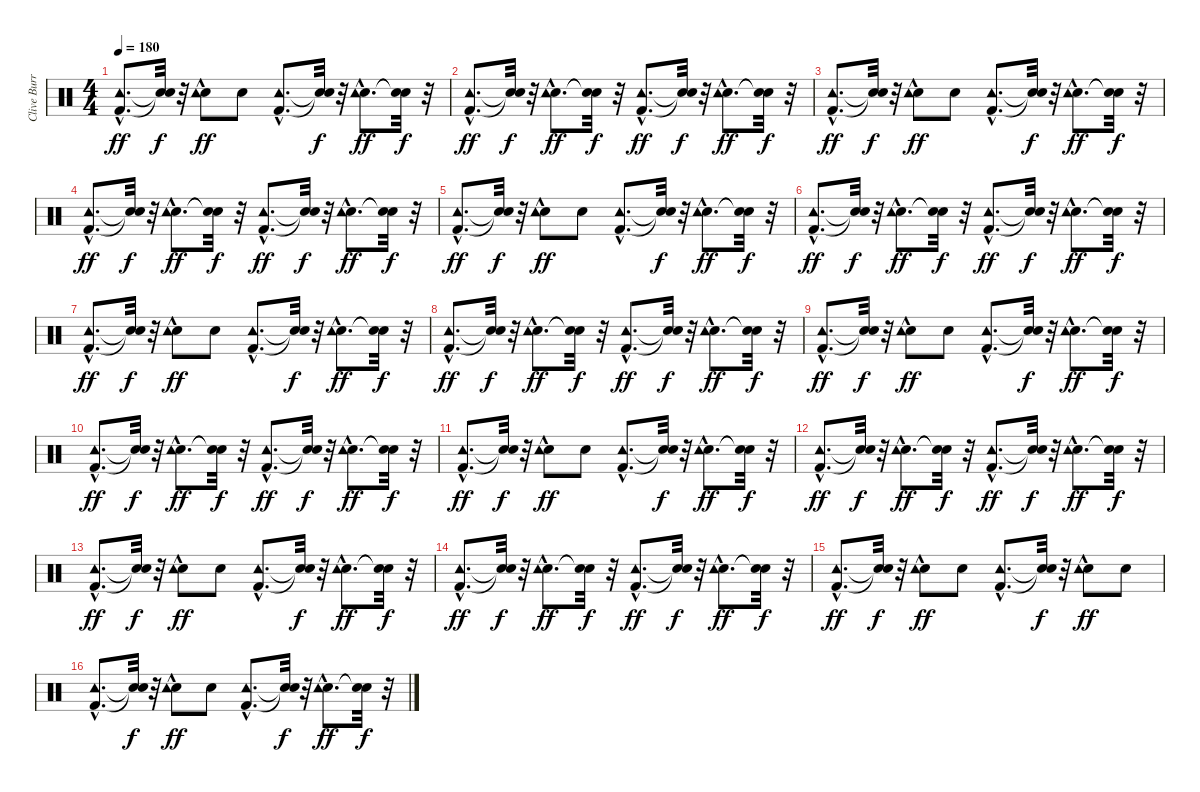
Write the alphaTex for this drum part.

\track ("Clive Burr" "Clive Burr") {instrument percussion}
\staff {score}
\articulation defaults
\ts (4 4)
\tempo 180
\clef neutral
\ks c
("Kick (hit) 2"{hac} "Tambourine (hit)"{hac}).8{d dy ff} ("Snare (hit)"{t} "Snare (hit)"{t}).32{dy f} r.32 ("Snare (hit) 2" "Tambourine (hit)"{hac}).8{dy ff} "Snare (hit) 2".8 ("Kick (hit) 2"{hac} "Tambourine (hit)"{hac}).8{d} ("Snare (hit)"{t} "Snare (hit)"{t}).32{dy f} r.32 ("Snare (hit) 2"{hac} "Tambourine (hit)"{hac}).8{d dy ff} ("Snare (hit)"{t} "Snare (hit)"{t}).32{dy f} r.32 |
("Kick (hit) 2"{hac} "Tambourine (hit)"{hac}).8{d dy ff} ("Snare (hit)"{t} "Snare (hit)"{t}).32{dy f} r.32 ("Snare (hit) 2"{hac} "Tambourine (hit)"{hac}).8{d dy ff} ("Snare (hit)"{t} "Snare (hit)"{t}).32{dy f} r.32 ("Kick (hit) 2"{hac} "Tambourine (hit)"{hac}).8{d dy ff} ("Snare (hit)"{t} "Snare (hit)"{t}).32{dy f} r.32 ("Snare (hit) 2"{hac} "Tambourine (hit)"{hac}).8{d dy ff} ("Snare (hit)"{t} "Snare (hit)"{t}).32{dy f} r.32 |
("Kick (hit) 2"{hac} "Tambourine (hit)"{hac}).8{d dy ff} ("Snare (hit)"{t} "Snare (hit)"{t}).32{dy f} r.32 ("Snare (hit) 2" "Tambourine (hit)"{hac}).8{dy ff} "Snare (hit) 2".8 ("Kick (hit) 2"{hac} "Tambourine (hit)"{hac}).8{d} ("Snare (hit)"{t} "Snare (hit)"{t}).32{dy f} r.32 ("Snare (hit) 2"{hac} "Tambourine (hit)"{hac}).8{d dy ff} ("Snare (hit)"{t} "Snare (hit)"{t}).32{dy f} r.32 |
("Kick (hit) 2"{hac} "Tambourine (hit)"{hac}).8{d dy ff} ("Snare (hit)"{t} "Snare (hit)"{t}).32{dy f} r.32 ("Snare (hit) 2"{hac} "Tambourine (hit)"{hac}).8{d dy ff} ("Snare (hit)"{t} "Snare (hit)"{t}).32{dy f} r.32 ("Kick (hit) 2"{hac} "Tambourine (hit)"{hac}).8{d dy ff} ("Snare (hit)"{t} "Snare (hit)"{t}).32{dy f} r.32 ("Snare (hit) 2"{hac} "Tambourine (hit)"{hac}).8{d dy ff} ("Snare (hit)"{t} "Snare (hit)"{t}).32{dy f} r.32 |
("Kick (hit) 2"{hac} "Tambourine (hit)"{hac}).8{d dy ff} ("Snare (hit)"{t} "Snare (hit)"{t}).32{dy f} r.32 ("Snare (hit) 2" "Tambourine (hit)"{hac}).8{dy ff} "Snare (hit) 2".8 ("Kick (hit) 2"{hac} "Tambourine (hit)"{hac}).8{d} ("Snare (hit)"{t} "Snare (hit)"{t}).32{dy f} r.32 ("Snare (hit) 2"{hac} "Tambourine (hit)"{hac}).8{d dy ff} ("Snare (hit)"{t} "Snare (hit)"{t}).32{dy f} r.32 |
("Kick (hit) 2"{hac} "Tambourine (hit)"{hac}).8{d dy ff} ("Snare (hit)"{t} "Snare (hit)"{t}).32{dy f} r.32 ("Snare (hit) 2"{hac} "Tambourine (hit)"{hac}).8{d dy ff} ("Snare (hit)"{t} "Snare (hit)"{t}).32{dy f} r.32 ("Kick (hit) 2"{hac} "Tambourine (hit)"{hac}).8{d dy ff} ("Snare (hit)"{t} "Snare (hit)"{t}).32{dy f} r.32 ("Snare (hit) 2"{hac} "Tambourine (hit)"{hac}).8{d dy ff} ("Snare (hit)"{t} "Snare (hit)"{t}).32{dy f} r.32 |
("Kick (hit) 2"{hac} "Tambourine (hit)"{hac}).8{d dy ff} ("Snare (hit)"{t} "Snare (hit)"{t}).32{dy f} r.32 ("Snare (hit) 2" "Tambourine (hit)"{hac}).8{dy ff} "Snare (hit) 2".8 ("Kick (hit) 2"{hac} "Tambourine (hit)"{hac}).8{d} ("Snare (hit)"{t} "Snare (hit)"{t}).32{dy f} r.32 ("Snare (hit) 2"{hac} "Tambourine (hit)"{hac}).8{d dy ff} ("Snare (hit)"{t} "Snare (hit)"{t}).32{dy f} r.32 |
("Kick (hit) 2"{hac} "Tambourine (hit)"{hac}).8{d dy ff} ("Snare (hit)"{t} "Snare (hit)"{t}).32{dy f} r.32 ("Snare (hit) 2"{hac} "Tambourine (hit)"{hac}).8{d dy ff} ("Snare (hit)"{t} "Snare (hit)"{t}).32{dy f} r.32 ("Kick (hit) 2"{hac} "Tambourine (hit)"{hac}).8{d dy ff} ("Snare (hit)"{t} "Snare (hit)"{t}).32{dy f} r.32 ("Snare (hit) 2"{hac} "Tambourine (hit)"{hac}).8{d dy ff} ("Snare (hit)"{t} "Snare (hit)"{t}).32{dy f} r.32 |
("Kick (hit) 2"{hac} "Tambourine (hit)"{hac}).8{d dy ff} ("Snare (hit)"{t} "Snare (hit)"{t}).32{dy f} r.32 ("Snare (hit) 2" "Tambourine (hit)"{hac}).8{dy ff} "Snare (hit) 2".8 ("Kick (hit) 2"{hac} "Tambourine (hit)"{hac}).8{d} ("Snare (hit)"{t} "Snare (hit)"{t}).32{dy f} r.32 ("Snare (hit) 2"{hac} "Tambourine (hit)"{hac}).8{d dy ff} ("Snare (hit)"{t} "Snare (hit)"{t}).32{dy f} r.32 |
("Kick (hit) 2"{hac} "Tambourine (hit)"{hac}).8{d dy ff} ("Snare (hit)"{t} "Snare (hit)"{t}).32{dy f} r.32 ("Snare (hit) 2"{hac} "Tambourine (hit)"{hac}).8{d dy ff} ("Snare (hit)"{t} "Snare (hit)"{t}).32{dy f} r.32 ("Kick (hit) 2"{hac} "Tambourine (hit)"{hac}).8{d dy ff} ("Snare (hit)"{t} "Snare (hit)"{t}).32{dy f} r.32 ("Snare (hit) 2"{hac} "Tambourine (hit)"{hac}).8{d dy ff} ("Snare (hit)"{t} "Snare (hit)"{t}).32{dy f} r.32 |
("Kick (hit) 2"{hac} "Tambourine (hit)"{hac}).8{d dy ff} ("Snare (hit)"{t} "Snare (hit)"{t}).32{dy f} r.32 ("Snare (hit) 2" "Tambourine (hit)"{hac}).8{dy ff} "Snare (hit) 2".8 ("Kick (hit) 2"{hac} "Tambourine (hit)"{hac}).8{d} ("Snare (hit)"{t} "Snare (hit)"{t}).32{dy f} r.32 ("Snare (hit) 2"{hac} "Tambourine (hit)"{hac}).8{d dy ff} ("Snare (hit)"{t} "Snare (hit)"{t}).32{dy f} r.32 |
("Kick (hit) 2"{hac} "Tambourine (hit)"{hac}).8{d dy ff} ("Snare (hit)"{t} "Snare (hit)"{t}).32{dy f} r.32 ("Snare (hit) 2"{hac} "Tambourine (hit)"{hac}).8{d dy ff} ("Snare (hit)"{t} "Snare (hit)"{t}).32{dy f} r.32 ("Kick (hit) 2"{hac} "Tambourine (hit)"{hac}).8{d dy ff} ("Snare (hit)"{t} "Snare (hit)"{t}).32{dy f} r.32 ("Snare (hit) 2"{hac} "Tambourine (hit)"{hac}).8{d dy ff} ("Snare (hit)"{t} "Snare (hit)"{t}).32{dy f} r.32 |
("Kick (hit) 2"{hac} "Tambourine (hit)"{hac}).8{d dy ff} ("Snare (hit)"{t} "Snare (hit)"{t}).32{dy f} r.32 ("Snare (hit) 2" "Tambourine (hit)"{hac}).8{dy ff} "Snare (hit) 2".8 ("Kick (hit) 2"{hac} "Tambourine (hit)"{hac}).8{d} ("Snare (hit)"{t} "Snare (hit)"{t}).32{dy f} r.32 ("Snare (hit) 2"{hac} "Tambourine (hit)"{hac}).8{d dy ff} ("Snare (hit)"{t} "Snare (hit)"{t}).32{dy f} r.32 |
("Kick (hit) 2"{hac} "Tambourine (hit)"{hac}).8{d dy ff} ("Snare (hit)"{t} "Snare (hit)"{t}).32{dy f} r.32 ("Snare (hit) 2"{hac} "Tambourine (hit)"{hac}).8{d dy ff} ("Snare (hit)"{t} "Snare (hit)"{t}).32{dy f} r.32 ("Kick (hit) 2"{hac} "Tambourine (hit)"{hac}).8{d dy ff} ("Snare (hit)"{t} "Snare (hit)"{t}).32{dy f} r.32 ("Snare (hit) 2"{hac} "Tambourine (hit)"{hac}).8{d dy ff} ("Snare (hit)"{t} "Snare (hit)"{t}).32{dy f} r.32 |
("Kick (hit) 2"{hac} "Tambourine (hit)"{hac}).8{d dy ff} ("Snare (hit)"{t} "Snare (hit)"{t}).32{dy f} r.32 ("Snare (hit) 2" "Tambourine (hit)"{hac}).8{dy ff} "Snare (hit) 2".8 ("Kick (hit) 2"{hac} "Tambourine (hit)"{hac}).8{d} ("Snare (hit)"{t} "Snare (hit)"{t}).32{dy f} r.32 ("Snare (hit) 2" "Tambourine (hit)"{hac}).8{dy ff} "Snare (hit) 2".8 |
("Kick (hit) 2"{hac} "Tambourine (hit)"{hac}).8{d} ("Snare (hit)"{t} "Snare (hit)"{t}).32{dy f} r.32 ("Snare (hit) 2" "Tambourine (hit)"{hac}).8{dy ff} "Snare (hit) 2".8 ("Kick (hit) 2"{hac} "Tambourine (hit)"{hac}).8{d} ("Snare (hit)"{t} "Snare (hit)"{t}).32{dy f} r.32 ("Snare (hit) 2"{hac} "Tambourine (hit)"{hac}).8{d dy ff} ("Snare (hit)"{t} "Snare (hit)"{t}).32{dy f} r.32
